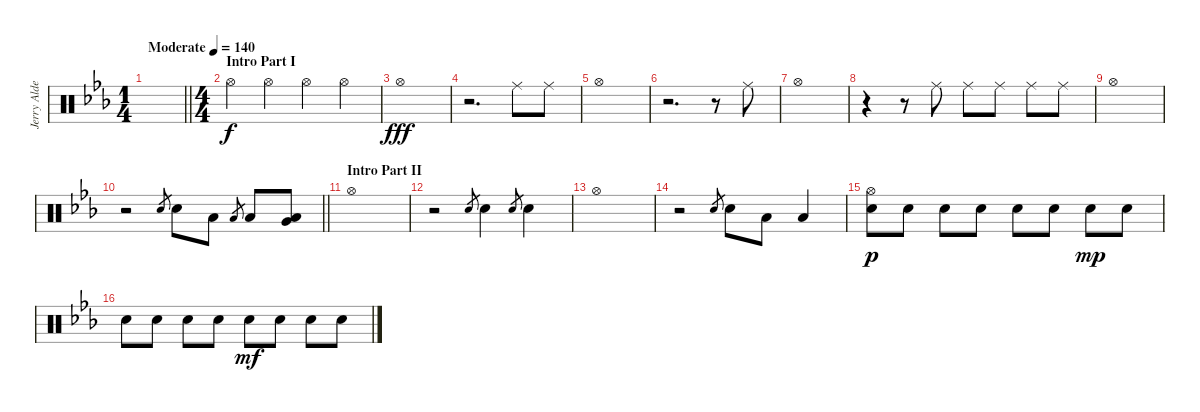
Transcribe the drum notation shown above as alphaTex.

\track ("Jerry Alder - Drums" "Jerry Alde") {instrument percussion}
\staff {score}
\articulation defaults
\ts (1 4)
\tempo (140 "Moderate")
\clef neutral
\barLineRight lightlight
\ks eb
|
\ts (4 4)
\section ("" "Intro Part I")
"Hi-Hat (open)".4 "Hi-Hat (open)".4 "Hi-Hat (open)".4 "Hi-Hat (open)".4 |
"Hi-Hat (open)".1{dy fff} |
r.2{d} "Ride (middle)".8 "Ride (middle)".8 |
"Hi-Hat (open)".1 |
r.2{d} r.8 "Ride (middle)".8 |
"Hi-Hat (open)".1 |
r.4 r.8 "Ride (middle)".8 "Ride (middle)".8 "Ride (middle)".8 "Ride (middle)".8 "Ride (middle)".8 |
"Hi-Hat (open)".1 |
\barLineRight lightlight
r.2 "Snare (hit) 2".8{gr} "Snare (hit) 2".8 "Low Tom (hit)".8 "Low Tom (hit)".8{gr} "Low Tom (hit)".8 ("Very Low Tom (hit)" "Low Tom (hit)").8 |
\section ("" "Intro Part II")
"Hi-Hat (open)".1 |
r.2 "Snare (hit) 2".8{gr} "Snare (hit) 2".4 "Snare (hit) 2".8{gr} "Snare (hit) 2".4 |
"Hi-Hat (open)".1 |
r.2 "Snare (hit) 2".8{gr} "Snare (hit) 2".8 "Low Tom (hit)".8 "Low Tom (hit)".4 |
("Hi-Hat (open)" "Snare (hit) 2").8{dy p} "Snare (hit) 2".8 "Snare (hit) 2".8 "Snare (hit) 2".8 "Snare (hit) 2".8 "Snare (hit) 2".8 "Snare (hit) 2".8{dy mp} "Snare (hit) 2".8 |
"Snare (hit) 2".8 "Snare (hit) 2".8 "Snare (hit) 2".8 "Snare (hit) 2".8 "Snare (hit) 2".8{dy mf} "Snare (hit) 2".8 "Snare (hit) 2".8 "Snare (hit) 2".8
